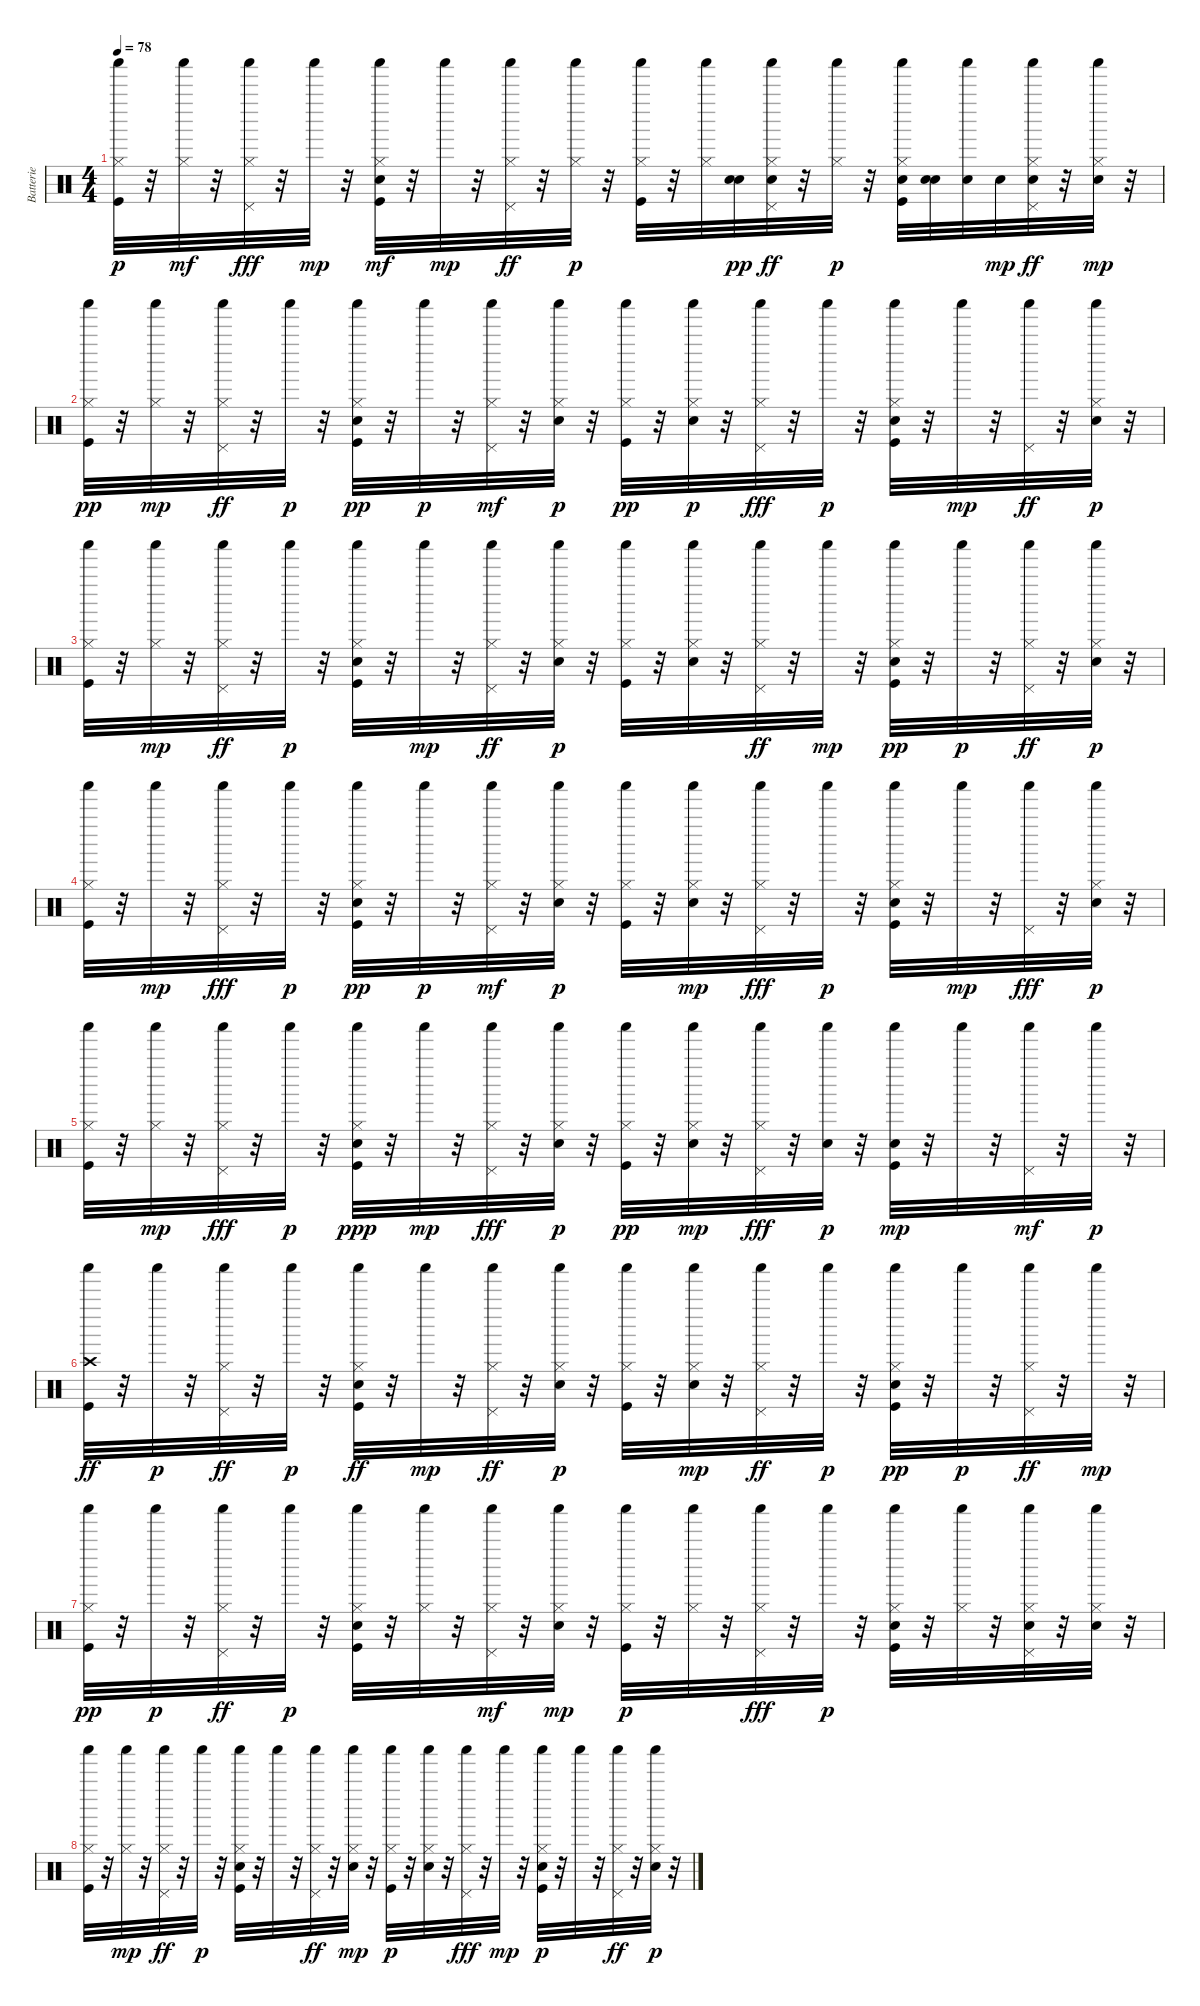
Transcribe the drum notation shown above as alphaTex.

\track ("Batterie" "Batterie") {instrument percussion}
\staff {score}
\articulation defaults
\ts (4 4)
\tempo 78
\clef neutral
\ks c
("Kick (hit)" "Shaker (hit)" "Hi-Hat (closed)").32{dy p} r.32 ("Shaker (hit)" "Hi-Hat (closed)").32{dy mf} r.32 ("Pedal Hi-Hat (hit)" "Hi-Hat (closed)" "Shaker (hit)").32{dy fff} r.32 "Shaker (hit)".32{dy mp} r.32 ("Electric Snare (hit)" "Hi-Hat (closed)" "Shaker (hit)" "Kick (hit)").32{dy mf} r.32 "Shaker (hit)".32{dy mp} r.32 ("Pedal Hi-Hat (hit)" "Hi-Hat (closed)" "Shaker (hit)").32{dy ff} r.32 ("Hi-Hat (closed)" "Shaker (hit)").32{dy p} r.32 ("Hi-Hat (closed)" "Kick (hit)" "Shaker (hit)").32 r.32 ("Hi-Hat (closed)" "Shaker (hit)").32 ("Electric Snare (hit)" "Electric Snare (hit)").32{dy pp} ("Electric Snare (hit)" "Pedal Hi-Hat (hit)" "Hi-Hat (closed)" "Shaker (hit)").32{dy ff} r.32 ("Hi-Hat (closed)" "Shaker (hit)").32{dy p} r.32 ("Electric Snare (hit)" "Hi-Hat (closed)" "Kick (hit)" "Shaker (hit)").32 ("Electric Snare (hit)" "Electric Snare (hit)").32 ("Shaker (hit)" "Electric Snare (hit)").32 "Electric Snare (hit)".32{dy mp} ("Electric Snare (hit)" "Pedal Hi-Hat (hit)" "Hi-Hat (closed)" "Shaker (hit)").32{dy ff} r.32 ("Electric Snare (hit)" "Hi-Hat (closed)" "Shaker (hit)").32{dy mp} r.32 |
("Kick (hit)" "Hi-Hat (closed)" "Shaker (hit)").32{dy pp} r.32 ("Hi-Hat (closed)" "Shaker (hit)").32{dy mp} r.32 ("Pedal Hi-Hat (hit)" "Hi-Hat (closed)" "Shaker (hit)").32{dy ff} r.32 "Shaker (hit)".32{dy p} r.32 ("Electric Snare (hit)" "Hi-Hat (closed)" "Kick (hit)" "Shaker (hit)").32{dy pp} r.32 "Shaker (hit)".32{dy p} r.32 ("Pedal Hi-Hat (hit)" "Hi-Hat (closed)" "Shaker (hit)").32{dy mf} r.32 ("Electric Snare (hit)" "Hi-Hat (closed)" "Shaker (hit)").32{dy p} r.32 ("Hi-Hat (closed)" "Kick (hit)" "Shaker (hit)").32{dy pp} r.32 ("Electric Snare (hit)" "Hi-Hat (closed)" "Shaker (hit)").32{dy p} r.32 ("Hi-Hat (closed)" "Pedal Hi-Hat (hit)" "Shaker (hit)").32{dy fff} r.32 "Shaker (hit)".32{dy p} r.32 ("Electric Snare (hit)" "Hi-Hat (closed)" "Kick (hit)" "Shaker (hit)").32 r.32 "Shaker (hit)".32{dy mp} r.32 ("Pedal Hi-Hat (hit)" "Shaker (hit)").32{dy ff} r.32 ("Electric Snare (hit)" "Hi-Hat (closed)" "Shaker (hit)").32{dy p} r.32 |
("Hi-Hat (closed)" "Kick (hit)" "Shaker (hit)").32 r.32 ("Hi-Hat (closed)" "Shaker (hit)").32{dy mp} r.32 ("Pedal Hi-Hat (hit)" "Hi-Hat (closed)" "Shaker (hit)").32{dy ff} r.32 "Shaker (hit)".32{dy p} r.32 ("Electric Snare (hit)" "Hi-Hat (closed)" "Kick (hit)" "Shaker (hit)").32 r.32 "Shaker (hit)".32{dy mp} r.32 ("Hi-Hat (closed)" "Pedal Hi-Hat (hit)" "Shaker (hit)").32{dy ff} r.32 ("Electric Snare (hit)" "Hi-Hat (closed)" "Shaker (hit)").32{dy p} r.32 ("Hi-Hat (closed)" "Kick (hit)" "Shaker (hit)").32 r.32 ("Electric Snare (hit)" "Hi-Hat (closed)" "Shaker (hit)").32 r.32 ("Pedal Hi-Hat (hit)" "Hi-Hat (closed)" "Shaker (hit)").32{dy ff} r.32 "Shaker (hit)".32{dy mp} r.32 ("Electric Snare (hit)" "Hi-Hat (closed)" "Kick (hit)" "Shaker (hit)").32{dy pp} r.32 "Shaker (hit)".32{dy p} r.32 ("Pedal Hi-Hat (hit)" "Hi-Hat (closed)" "Shaker (hit)").32{dy ff} r.32 ("Electric Snare (hit)" "Hi-Hat (closed)" "Shaker (hit)").32{dy p} r.32 |
("Hi-Hat (closed)" "Kick (hit)" "Shaker (hit)").32 r.32 "Shaker (hit)".32{dy mp} r.32 ("Hi-Hat (closed)" "Pedal Hi-Hat (hit)" "Shaker (hit)").32{dy fff} r.32 "Shaker (hit)".32{dy p} r.32 ("Electric Snare (hit)" "Hi-Hat (closed)" "Kick (hit)" "Shaker (hit)").32{dy pp} r.32 "Shaker (hit)".32{dy p} r.32 ("Pedal Hi-Hat (hit)" "Hi-Hat (closed)" "Shaker (hit)").32{dy mf} r.32 ("Electric Snare (hit)" "Hi-Hat (closed)" "Shaker (hit)").32{dy p} r.32 ("Hi-Hat (closed)" "Kick (hit)" "Shaker (hit)").32 r.32 ("Electric Snare (hit)" "Hi-Hat (closed)" "Shaker (hit)").32{dy mp} r.32 ("Pedal Hi-Hat (hit)" "Hi-Hat (closed)" "Shaker (hit)").32{dy fff} r.32 "Shaker (hit)".32{dy p} r.32 ("Electric Snare (hit)" "Hi-Hat (closed)" "Kick (hit)" "Shaker (hit)").32 r.32 "Shaker (hit)".32{dy mp} r.32 ("Shaker (hit)" "Pedal Hi-Hat (hit)").32{dy fff} r.32 ("Electric Snare (hit)" "Hi-Hat (closed)" "Shaker (hit)").32{dy p} r.32 |
("Hi-Hat (closed)" "Kick (hit)" "Shaker (hit)").32 r.32 ("Hi-Hat (closed)" "Shaker (hit)").32{dy mp} r.32 ("Hi-Hat (closed)" "Shaker (hit)" "Pedal Hi-Hat (hit)").32{dy fff} r.32 "Shaker (hit)".32{dy p} r.32 ("Electric Snare (hit)" "Hi-Hat (closed)" "Kick (hit)" "Shaker (hit)").32{dy ppp} r.32 "Shaker (hit)".32{dy mp} r.32 ("Pedal Hi-Hat (hit)" "Hi-Hat (closed)" "Shaker (hit)").32{dy fff} r.32 ("Electric Snare (hit)" "Hi-Hat (closed)" "Shaker (hit)").32{dy p} r.32 ("Hi-Hat (closed)" "Kick (hit)" "Shaker (hit)").32{dy pp} r.32 ("Electric Snare (hit)" "Hi-Hat (closed)" "Shaker (hit)").32{dy mp} r.32 ("Hi-Hat (closed)" "Pedal Hi-Hat (hit)" "Shaker (hit)").32{dy fff} r.32 ("Electric Snare (hit)" "Shaker (hit)").32{dy p} r.32 ("Electric Snare (hit)" "Kick (hit)" "Shaker (hit)").32{dy mp} r.32 "Shaker (hit)".32 r.32 ("Pedal Hi-Hat (hit)" "Shaker (hit)").32{dy mf} r.32 "Shaker (hit)".32{dy p} r.32 |
("Kick (hit)" "Shaker (hit)" "Crash high (hit)").32{dy ff} r.32 "Shaker (hit)".32{dy p} r.32 ("Pedal Hi-Hat (hit)" "Shaker (hit)" "Hi-Hat (closed)").32{dy ff} r.32 "Shaker (hit)".32{dy p} r.32 ("Electric Snare (hit)" "Kick (hit)" "Shaker (hit)" "Hi-Hat (closed)").32{dy ff} r.32 "Shaker (hit)".32{dy mp} r.32 ("Pedal Hi-Hat (hit)" "Hi-Hat (closed)" "Shaker (hit)").32{dy ff} r.32 ("Hi-Hat (closed)" "Electric Snare (hit)" "Shaker (hit)").32{dy p} r.32 ("Hi-Hat (closed)" "Kick (hit)" "Shaker (hit)").32 r.32 ("Electric Snare (hit)" "Hi-Hat (closed)" "Shaker (hit)").32{dy mp} r.32 ("Pedal Hi-Hat (hit)" "Hi-Hat (closed)" "Shaker (hit)").32{dy ff} r.32 "Shaker (hit)".32{dy p} r.32 ("Electric Snare (hit)" "Hi-Hat (closed)" "Kick (hit)" "Shaker (hit)").32{dy pp} r.32 "Shaker (hit)".32{dy p} r.32 ("Pedal Hi-Hat (hit)" "Hi-Hat (closed)" "Shaker (hit)").32{dy ff} r.32 "Shaker (hit)".32{dy mp} r.32 |
("Hi-Hat (closed)" "Kick (hit)" "Shaker (hit)").32{dy pp} r.32 "Shaker (hit)".32{dy p} r.32 ("Pedal Hi-Hat (hit)" "Hi-Hat (closed)" "Shaker (hit)").32{dy ff} r.32 "Shaker (hit)".32{dy p} r.32 ("Electric Snare (hit)" "Hi-Hat (closed)" "Kick (hit)" "Shaker (hit)").32 r.32 ("Hi-Hat (closed)" "Shaker (hit)").32 r.32 ("Pedal Hi-Hat (hit)" "Hi-Hat (closed)" "Shaker (hit)").32{dy mf} r.32 ("Electric Snare (hit)" "Hi-Hat (closed)" "Shaker (hit)").32{dy mp} r.32 ("Kick (hit)" "Hi-Hat (closed)" "Shaker (hit)").32{dy p} r.32 ("Hi-Hat (closed)" "Shaker (hit)").32 r.32 ("Hi-Hat (closed)" "Shaker (hit)" "Pedal Hi-Hat (hit)").32{dy fff} r.32 "Shaker (hit)".32{dy p} r.32 ("Electric Snare (hit)" "Kick (hit)" "Hi-Hat (closed)" "Shaker (hit)").32 r.32 ("Hi-Hat (closed)" "Shaker (hit)").32 r.32 ("Hi-Hat (closed)" "Pedal Hi-Hat (hit)" "Shaker (hit)" "Electric Snare (hit)").32 r.32 ("Electric Snare (hit)" "Hi-Hat (closed)" "Shaker (hit)").32 r.32 |
("Kick (hit)" "Hi-Hat (closed)" "Shaker (hit)").32 r.32 ("Shaker (hit)" "Hi-Hat (closed)").32{dy mp} r.32 ("Pedal Hi-Hat (hit)" "Hi-Hat (closed)" "Shaker (hit)").32{dy ff} r.32 "Shaker (hit)".32{dy p} r.32 ("Electric Snare (hit)" "Hi-Hat (closed)" "Kick (hit)" "Shaker (hit)").32 r.32 "Shaker (hit)".32 r.32 ("Pedal Hi-Hat (hit)" "Hi-Hat (closed)" "Shaker (hit)").32{dy ff} r.32 ("Electric Snare (hit)" "Hi-Hat (closed)" "Shaker (hit)").32{dy mp} r.32 ("Hi-Hat (closed)" "Kick (hit)" "Shaker (hit)").32{dy p} r.32 ("Electric Snare (hit)" "Hi-Hat (closed)" "Shaker (hit)").32 r.32 ("Hi-Hat (closed)" "Pedal Hi-Hat (hit)" "Shaker (hit)").32{dy fff} r.32 "Shaker (hit)".32{dy mp} r.32 ("Electric Snare (hit)" "Hi-Hat (closed)" "Kick (hit)" "Shaker (hit)").32{dy p} r.32 "Shaker (hit)".32 r.32 ("Pedal Hi-Hat (hit)" "Hi-Hat (closed)" "Shaker (hit)").32{dy ff} r.32 ("Electric Snare (hit)" "Hi-Hat (closed)" "Shaker (hit)").32{dy p} r.32
